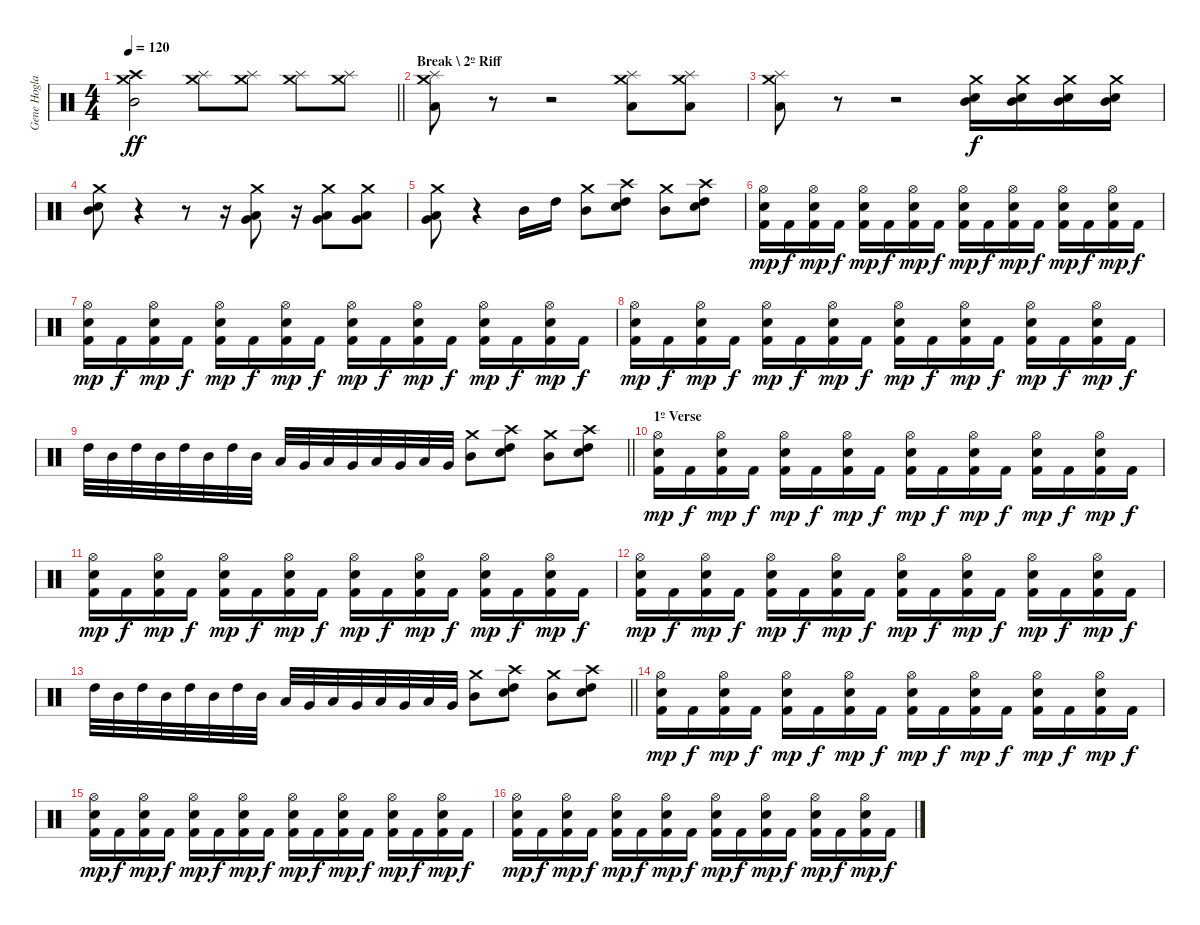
\track ("Gene Hoglan" "Gene Hogla") {instrument percussion}
\staff {score}
\articulation defaults
\ts (4 4)
\tempo 120
\clef neutral
\barLineRight lightlight
\ks c
("Mid Tom (hit)" "Crash medium (hit)" "Crash high (hit)").2{dy ff} ("Crash medium (hit)" "Splash (hit)").8 ("Crash medium (hit)" "Splash (hit)").8 ("Crash medium (hit)" "Splash (hit)").8 ("Crash medium (hit)" "Splash (hit)").8 |
\section ("" "Break \\ 2º Riff")
("Crash medium (hit)" "Splash (hit)" "Low Tom (hit)").8 r.8 r.2 ("Crash medium (hit)" "Splash (hit)" "Low Tom (hit)").8 ("Crash medium (hit)" "Splash (hit)" "Low Tom (hit)").8 |
("Crash medium (hit)" "Splash (hit)" "Low Tom (hit)").8 r.8 r.2 ("Mid Tom (hit)" "Electric Snare (hit)" "Crash medium (hit)").16{dy f} ("Mid Tom (hit)" "Electric Snare (hit)" "Crash medium (hit)").16 ("Mid Tom (hit)" "Electric Snare (hit)" "Crash medium (hit)").16 ("Mid Tom (hit)" "Electric Snare (hit)" "Crash medium (hit)").16 |
("Mid Tom (hit)" "Electric Snare (hit)" "Crash medium (hit)").8 r.4 r.8 r.16 ("Very Low Tom (hit)" "Low Tom (hit)" "Crash medium (hit)").8 r.16 ("Very Low Tom (hit)" "Low Tom (hit)" "Crash medium (hit)").8 ("Very Low Tom (hit)" "Low Tom (hit)" "Crash medium (hit)").8 |
("Very Low Tom (hit)" "Low Tom (hit)" "Crash medium (hit)").8 r.4 "Mid Tom (hit)".16 "High Tom (hit)".16 ("Mid Tom (hit)" "Crash medium (hit)").8 ("High Tom (hit)" "Crash high (hit)" "Electric Snare (hit)").8 ("Mid Tom (hit)" "Crash medium (hit)").8 ("High Tom (hit)" "Crash high (hit)" "Electric Snare (hit)").8 |
("Hi-Hat (open)" "Snare (hit) 2" "Kick (hit) 2").16{dy mp} "Kick (hit) 2".16{dy f} ("Hi-Hat (open)" "Snare (hit) 2" "Kick (hit) 2").16{dy mp} "Kick (hit) 2".16{dy f} ("Hi-Hat (open)" "Snare (hit) 2" "Kick (hit) 2").16{dy mp} "Kick (hit) 2".16{dy f} ("Hi-Hat (open)" "Snare (hit) 2" "Kick (hit) 2").16{dy mp} "Kick (hit) 2".16{dy f} ("Hi-Hat (open)" "Snare (hit) 2" "Kick (hit) 2").16{dy mp} "Kick (hit) 2".16{dy f} ("Hi-Hat (open)" "Snare (hit) 2" "Kick (hit) 2").16{dy mp} "Kick (hit) 2".16{dy f} ("Hi-Hat (open)" "Snare (hit) 2" "Kick (hit) 2").16{dy mp} "Kick (hit) 2".16{dy f} ("Hi-Hat (open)" "Snare (hit) 2" "Kick (hit) 2").16{dy mp} "Kick (hit) 2".16{dy f} |
("Hi-Hat (open)" "Snare (hit) 2" "Kick (hit) 2").16{dy mp} "Kick (hit) 2".16{dy f} ("Hi-Hat (open)" "Snare (hit) 2" "Kick (hit) 2").16{dy mp} "Kick (hit) 2".16{dy f} ("Hi-Hat (open)" "Snare (hit) 2" "Kick (hit) 2").16{dy mp} "Kick (hit) 2".16{dy f} ("Hi-Hat (open)" "Snare (hit) 2" "Kick (hit) 2").16{dy mp} "Kick (hit) 2".16{dy f} ("Hi-Hat (open)" "Snare (hit) 2" "Kick (hit) 2").16{dy mp} "Kick (hit) 2".16{dy f} ("Hi-Hat (open)" "Snare (hit) 2" "Kick (hit) 2").16{dy mp} "Kick (hit) 2".16{dy f} ("Hi-Hat (open)" "Snare (hit) 2" "Kick (hit) 2").16{dy mp} "Kick (hit) 2".16{dy f} ("Hi-Hat (open)" "Snare (hit) 2" "Kick (hit) 2").16{dy mp} "Kick (hit) 2".16{dy f} |
("Hi-Hat (open)" "Snare (hit) 2" "Kick (hit) 2").16{dy mp} "Kick (hit) 2".16{dy f} ("Hi-Hat (open)" "Snare (hit) 2" "Kick (hit) 2").16{dy mp} "Kick (hit) 2".16{dy f} ("Hi-Hat (open)" "Snare (hit) 2" "Kick (hit) 2").16{dy mp} "Kick (hit) 2".16{dy f} ("Hi-Hat (open)" "Snare (hit) 2" "Kick (hit) 2").16{dy mp} "Kick (hit) 2".16{dy f} ("Hi-Hat (open)" "Snare (hit) 2" "Kick (hit) 2").16{dy mp} "Kick (hit) 2".16{dy f} ("Hi-Hat (open)" "Snare (hit) 2" "Kick (hit) 2").16{dy mp} "Kick (hit) 2".16{dy f} ("Hi-Hat (open)" "Snare (hit) 2" "Kick (hit) 2").16{dy mp} "Kick (hit) 2".16{dy f} ("Hi-Hat (open)" "Snare (hit) 2" "Kick (hit) 2").16{dy mp} "Kick (hit) 2".16{dy f} |
\barLineRight lightlight "High Tom (hit)".32 "Mid Tom (hit)".32 "High Tom (hit)".32 "Mid Tom (hit)".32 "High Tom (hit)".32 "Mid Tom (hit)".32 "High Tom (hit)".32 "Mid Tom (hit)".32 "Low Tom (hit)".32 "Very Low Tom (hit)".32 "Low Tom (hit)".32 "Very Low Tom (hit)".32 "Low Tom (hit)".32 "Very Low Tom (hit)".32 "Low Tom (hit)".32 "Very Low Tom (hit)".32
("Mid Tom (hit)" "Crash medium (hit)").8 ("High Tom (hit)" "Crash high (hit)" "Electric Snare (hit)").8 ("Mid Tom (hit)" "Crash medium (hit)").8 ("High Tom (hit)" "Crash high (hit)" "Electric Snare (hit)").8 |
\section ("" "1º Verse")
("Hi-Hat (open)" "Snare (hit) 2" "Kick (hit) 2").16{dy mp} "Kick (hit) 2".16{dy f} ("Hi-Hat (open)" "Snare (hit) 2" "Kick (hit) 2").16{dy mp} "Kick (hit) 2".16{dy f} ("Hi-Hat (open)" "Snare (hit) 2" "Kick (hit) 2").16{dy mp} "Kick (hit) 2".16{dy f} ("Hi-Hat (open)" "Snare (hit) 2" "Kick (hit) 2").16{dy mp} "Kick (hit) 2".16{dy f} ("Hi-Hat (open)" "Snare (hit) 2" "Kick (hit) 2").16{dy mp} "Kick (hit) 2".16{dy f} ("Hi-Hat (open)" "Snare (hit) 2" "Kick (hit) 2").16{dy mp} "Kick (hit) 2".16{dy f} ("Hi-Hat (open)" "Snare (hit) 2" "Kick (hit) 2").16{dy mp} "Kick (hit) 2".16{dy f} ("Hi-Hat (open)" "Snare (hit) 2" "Kick (hit) 2").16{dy mp} "Kick (hit) 2".16{dy f} |
("Hi-Hat (open)" "Snare (hit) 2" "Kick (hit) 2").16{dy mp} "Kick (hit) 2".16{dy f} ("Hi-Hat (open)" "Snare (hit) 2" "Kick (hit) 2").16{dy mp} "Kick (hit) 2".16{dy f} ("Hi-Hat (open)" "Snare (hit) 2" "Kick (hit) 2").16{dy mp} "Kick (hit) 2".16{dy f} ("Hi-Hat (open)" "Snare (hit) 2" "Kick (hit) 2").16{dy mp} "Kick (hit) 2".16{dy f} ("Hi-Hat (open)" "Snare (hit) 2" "Kick (hit) 2").16{dy mp} "Kick (hit) 2".16{dy f} ("Hi-Hat (open)" "Snare (hit) 2" "Kick (hit) 2").16{dy mp} "Kick (hit) 2".16{dy f} ("Hi-Hat (open)" "Snare (hit) 2" "Kick (hit) 2").16{dy mp} "Kick (hit) 2".16{dy f} ("Hi-Hat (open)" "Snare (hit) 2" "Kick (hit) 2").16{dy mp} "Kick (hit) 2".16{dy f} |
("Hi-Hat (open)" "Snare (hit) 2" "Kick (hit) 2").16{dy mp} "Kick (hit) 2".16{dy f} ("Hi-Hat (open)" "Snare (hit) 2" "Kick (hit) 2").16{dy mp} "Kick (hit) 2".16{dy f} ("Hi-Hat (open)" "Snare (hit) 2" "Kick (hit) 2").16{dy mp} "Kick (hit) 2".16{dy f} ("Hi-Hat (open)" "Snare (hit) 2" "Kick (hit) 2").16{dy mp} "Kick (hit) 2".16{dy f} ("Hi-Hat (open)" "Snare (hit) 2" "Kick (hit) 2").16{dy mp} "Kick (hit) 2".16{dy f} ("Hi-Hat (open)" "Snare (hit) 2" "Kick (hit) 2").16{dy mp} "Kick (hit) 2".16{dy f} ("Hi-Hat (open)" "Snare (hit) 2" "Kick (hit) 2").16{dy mp} "Kick (hit) 2".16{dy f} ("Hi-Hat (open)" "Snare (hit) 2" "Kick (hit) 2").16{dy mp} "Kick (hit) 2".16{dy f} |
\barLineRight lightlight "High Tom (hit)".32 "Mid Tom (hit)".32 "High Tom (hit)".32 "Mid Tom (hit)".32 "High Tom (hit)".32 "Mid Tom (hit)".32 "High Tom (hit)".32 "Mid Tom (hit)".32 "Low Tom (hit)".32 "Very Low Tom (hit)".32 "Low Tom (hit)".32 "Very Low Tom (hit)".32 "Low Tom (hit)".32 "Very Low Tom (hit)".32 "Low Tom (hit)".32 "Very Low Tom (hit)".32
("Mid Tom (hit)" "Crash medium (hit)").8 ("High Tom (hit)" "Crash high (hit)" "Electric Snare (hit)").8 ("Mid Tom (hit)" "Crash medium (hit)").8 ("High Tom (hit)" "Crash high (hit)" "Electric Snare (hit)").8 |
("Hi-Hat (open)" "Snare (hit) 2" "Kick (hit) 2").16{dy mp} "Kick (hit) 2".16{dy f} ("Hi-Hat (open)" "Snare (hit) 2" "Kick (hit) 2").16{dy mp} "Kick (hit) 2".16{dy f} ("Hi-Hat (open)" "Snare (hit) 2" "Kick (hit) 2").16{dy mp} "Kick (hit) 2".16{dy f} ("Hi-Hat (open)" "Snare (hit) 2" "Kick (hit) 2").16{dy mp} "Kick (hit) 2".16{dy f} ("Hi-Hat (open)" "Snare (hit) 2" "Kick (hit) 2").16{dy mp} "Kick (hit) 2".16{dy f} ("Hi-Hat (open)" "Snare (hit) 2" "Kick (hit) 2").16{dy mp} "Kick (hit) 2".16{dy f} ("Hi-Hat (open)" "Snare (hit) 2" "Kick (hit) 2").16{dy mp} "Kick (hit) 2".16{dy f} ("Hi-Hat (open)" "Snare (hit) 2" "Kick (hit) 2").16{dy mp} "Kick (hit) 2".16{dy f} |
("Hi-Hat (open)" "Snare (hit) 2" "Kick (hit) 2").16{dy mp} "Kick (hit) 2".16{dy f} ("Hi-Hat (open)" "Snare (hit) 2" "Kick (hit) 2").16{dy mp} "Kick (hit) 2".16{dy f} ("Hi-Hat (open)" "Snare (hit) 2" "Kick (hit) 2").16{dy mp} "Kick (hit) 2".16{dy f} ("Hi-Hat (open)" "Snare (hit) 2" "Kick (hit) 2").16{dy mp} "Kick (hit) 2".16{dy f} ("Hi-Hat (open)" "Snare (hit) 2" "Kick (hit) 2").16{dy mp} "Kick (hit) 2".16{dy f} ("Hi-Hat (open)" "Snare (hit) 2" "Kick (hit) 2").16{dy mp} "Kick (hit) 2".16{dy f} ("Hi-Hat (open)" "Snare (hit) 2" "Kick (hit) 2").16{dy mp} "Kick (hit) 2".16{dy f} ("Hi-Hat (open)" "Snare (hit) 2" "Kick (hit) 2").16{dy mp} "Kick (hit) 2".16{dy f} |
("Hi-Hat (open)" "Snare (hit) 2" "Kick (hit) 2").16{dy mp} "Kick (hit) 2".16{dy f} ("Hi-Hat (open)" "Snare (hit) 2" "Kick (hit) 2").16{dy mp} "Kick (hit) 2".16{dy f} ("Hi-Hat (open)" "Snare (hit) 2" "Kick (hit) 2").16{dy mp} "Kick (hit) 2".16{dy f} ("Hi-Hat (open)" "Snare (hit) 2" "Kick (hit) 2").16{dy mp} "Kick (hit) 2".16{dy f} ("Hi-Hat (open)" "Snare (hit) 2" "Kick (hit) 2").16{dy mp} "Kick (hit) 2".16{dy f} ("Hi-Hat (open)" "Snare (hit) 2" "Kick (hit) 2").16{dy mp} "Kick (hit) 2".16{dy f} ("Hi-Hat (open)" "Snare (hit) 2" "Kick (hit) 2").16{dy mp} "Kick (hit) 2".16{dy f} ("Hi-Hat (open)" "Snare (hit) 2" "Kick (hit) 2").16{dy mp} "Kick (hit) 2".16{dy f}
